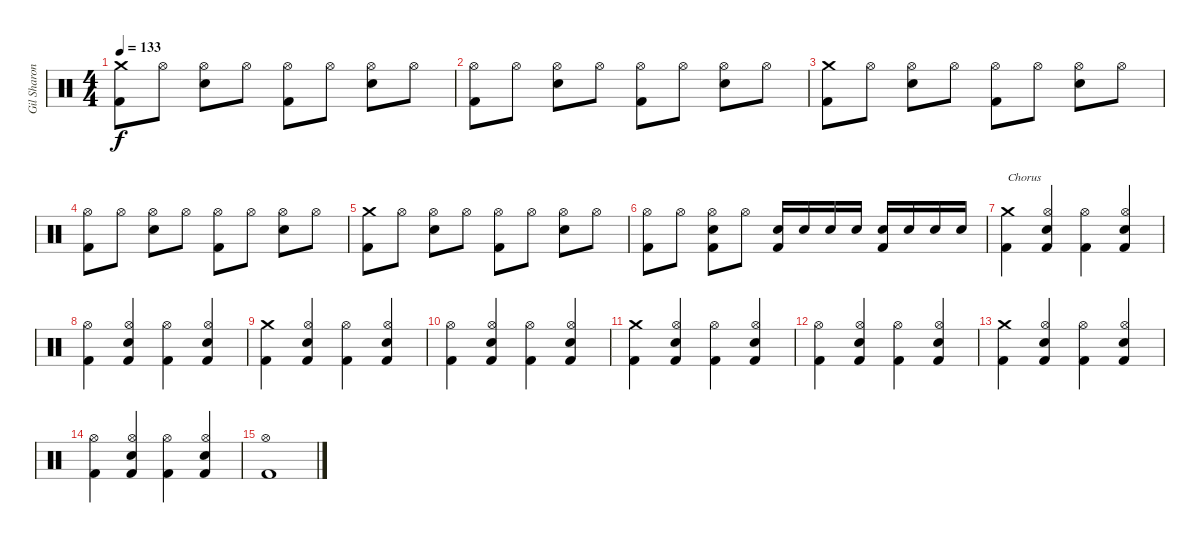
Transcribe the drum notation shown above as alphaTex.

\track ("Gil Sharone" "Gil Sharon") {instrument percussion}
\staff {score}
\articulation defaults
\ts (4 4)
\tempo 133
\clef neutral
\ks c
("Crash medium (hit)" "Kick (hit) 2").8{dy f} "Hi-Hat (open)".8 ("Hi-Hat (open)" "Electric Snare (hit)").8 "Hi-Hat (open)".8 ("Hi-Hat (open)" "Kick (hit) 2").8 "Hi-Hat (open)".8 ("Hi-Hat (open)" "Electric Snare (hit)").8 "Hi-Hat (open)".8 |
("Hi-Hat (open)" "Kick (hit) 2").8 "Hi-Hat (open)".8 ("Hi-Hat (open)" "Electric Snare (hit)").8 "Hi-Hat (open)".8 ("Hi-Hat (open)" "Kick (hit) 2").8 "Hi-Hat (open)".8 ("Hi-Hat (open)" "Electric Snare (hit)").8 "Hi-Hat (open)".8 |
("Crash medium (hit)" "Kick (hit) 2").8 "Hi-Hat (open)".8 ("Hi-Hat (open)" "Electric Snare (hit)").8 "Hi-Hat (open)".8 ("Hi-Hat (open)" "Kick (hit) 2").8 "Hi-Hat (open)".8 ("Hi-Hat (open)" "Electric Snare (hit)").8 "Hi-Hat (open)".8 |
("Hi-Hat (open)" "Kick (hit) 2").8 "Hi-Hat (open)".8 ("Hi-Hat (open)" "Electric Snare (hit)").8 "Hi-Hat (open)".8 ("Hi-Hat (open)" "Kick (hit) 2").8 "Hi-Hat (open)".8 ("Hi-Hat (open)" "Electric Snare (hit)").8 "Hi-Hat (open)".8 |
("Crash medium (hit)" "Kick (hit) 2").8 "Hi-Hat (open)".8 ("Hi-Hat (open)" "Electric Snare (hit)").8 "Hi-Hat (open)".8 ("Hi-Hat (open)" "Kick (hit) 2").8 "Hi-Hat (open)".8 ("Hi-Hat (open)" "Electric Snare (hit)").8 "Hi-Hat (open)".8 |
("Hi-Hat (open)" "Kick (hit) 2").8 "Hi-Hat (open)".8 ("Hi-Hat (open)" "Electric Snare (hit)" "Kick (hit) 2").8 "Hi-Hat (open)".8 ("Electric Snare (hit)" "Kick (hit) 2").16 "Electric Snare (hit)".16 "Electric Snare (hit)".16 "Electric Snare (hit)".16 ("Electric Snare (hit)" "Kick (hit) 2").16 "Electric Snare (hit)".16 "Electric Snare (hit)".16 "Electric Snare (hit)".16 |
("Crash medium (hit)" "Kick (hit) 2").4{txt "Chorus"} ("Hi-Hat (open)" "Electric Snare (hit)" "Kick (hit) 2").4 ("Hi-Hat (open)" "Kick (hit) 2").4 ("Hi-Hat (open)" "Electric Snare (hit)" "Kick (hit) 2").4 |
("Hi-Hat (open)" "Kick (hit) 2").4 ("Hi-Hat (open)" "Electric Snare (hit)" "Kick (hit) 2").4 ("Hi-Hat (open)" "Kick (hit) 2").4 ("Hi-Hat (open)" "Electric Snare (hit)" "Kick (hit) 2").4 |
("Crash medium (hit)" "Kick (hit) 2").4 ("Hi-Hat (open)" "Electric Snare (hit)" "Kick (hit) 2").4 ("Hi-Hat (open)" "Kick (hit) 2").4 ("Hi-Hat (open)" "Electric Snare (hit)" "Kick (hit) 2").4 |
("Hi-Hat (open)" "Kick (hit) 2").4 ("Hi-Hat (open)" "Electric Snare (hit)" "Kick (hit) 2").4 ("Hi-Hat (open)" "Kick (hit) 2").4 ("Hi-Hat (open)" "Electric Snare (hit)" "Kick (hit) 2").4 |
("Crash medium (hit)" "Kick (hit) 2").4 ("Hi-Hat (open)" "Electric Snare (hit)" "Kick (hit) 2").4 ("Hi-Hat (open)" "Kick (hit) 2").4 ("Hi-Hat (open)" "Electric Snare (hit)" "Kick (hit) 2").4 |
("Hi-Hat (open)" "Kick (hit) 2").4 ("Hi-Hat (open)" "Electric Snare (hit)" "Kick (hit) 2").4 ("Hi-Hat (open)" "Kick (hit) 2").4 ("Hi-Hat (open)" "Electric Snare (hit)" "Kick (hit) 2").4 |
("Crash medium (hit)" "Kick (hit) 2").4 ("Hi-Hat (open)" "Electric Snare (hit)" "Kick (hit) 2").4 ("Hi-Hat (open)" "Kick (hit) 2").4 ("Hi-Hat (open)" "Electric Snare (hit)" "Kick (hit) 2").4 |
("Hi-Hat (open)" "Kick (hit) 2").4 ("Hi-Hat (open)" "Electric Snare (hit)" "Kick (hit) 2").4 ("Hi-Hat (open)" "Kick (hit) 2").4 ("Hi-Hat (open)" "Electric Snare (hit)" "Kick (hit) 2").4 |
("Hi-Hat (open)" "Kick (hit) 2").1
